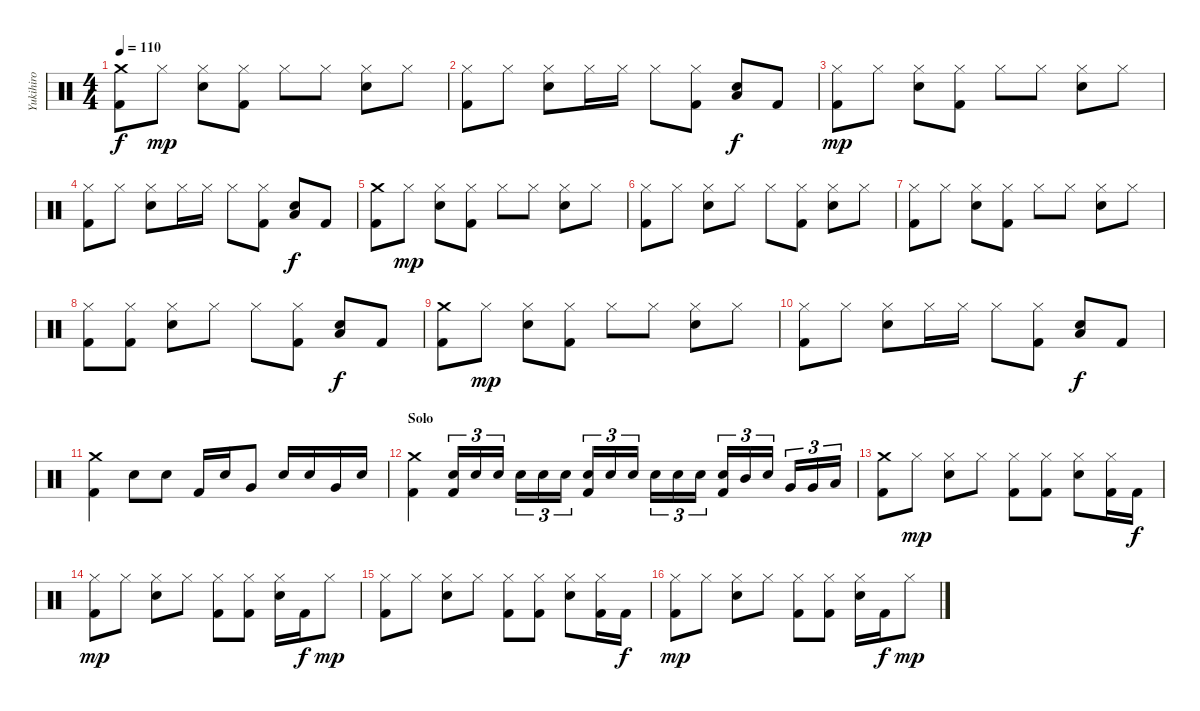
\track ("Yukihiro " "Yukihiro ") {instrument percussion}
\staff {score}
\articulation defaults
\ts (4 4)
\tempo 110
\clef neutral
\ks c
("Crash medium (hit)" "Kick (hit) 2").8{dy f} "Hi-Hat (closed)".8{dy mp} ("Hi-Hat (closed)" "Electric Snare (hit)").8 ("Hi-Hat (closed)" "Kick (hit) 2").8 "Hi-Hat (closed)".8 "Hi-Hat (closed)".8 ("Hi-Hat (closed)" "Electric Snare (hit)").8 "Hi-Hat (closed)".8 |
("Hi-Hat (closed)" "Kick (hit) 2").8 "Hi-Hat (closed)".8 ("Hi-Hat (closed)" "Electric Snare (hit)").8 "Hi-Hat (closed)".16 "Hi-Hat (closed)".16 "Hi-Hat (closed)".8 ("Hi-Hat (closed)" "Kick (hit) 2").8 ("Electric Snare (hit)" "Low Floor Tom (hit)").8{dy f} "Kick (hit) 2".8 |
("Hi-Hat (closed)" "Kick (hit) 2").8{dy mp} "Hi-Hat (closed)".8 ("Hi-Hat (closed)" "Electric Snare (hit)").8 ("Hi-Hat (closed)" "Kick (hit) 2").8 "Hi-Hat (closed)".8 "Hi-Hat (closed)".8 ("Hi-Hat (closed)" "Electric Snare (hit)").8 "Hi-Hat (closed)".8 |
("Hi-Hat (closed)" "Kick (hit) 2").8 "Hi-Hat (closed)".8 ("Hi-Hat (closed)" "Electric Snare (hit)").8 "Hi-Hat (closed)".16 "Hi-Hat (closed)".16 "Hi-Hat (closed)".8 ("Hi-Hat (closed)" "Kick (hit) 2").8 ("Electric Snare (hit)" "Low Floor Tom (hit)").8{dy f} "Kick (hit) 2".8 |
("Crash medium (hit)" "Kick (hit) 2").8 "Hi-Hat (closed)".8{dy mp} ("Hi-Hat (closed)" "Electric Snare (hit)").8 ("Hi-Hat (closed)" "Kick (hit) 2").8 "Hi-Hat (closed)".8 "Hi-Hat (closed)".8 ("Hi-Hat (closed)" "Electric Snare (hit)").8 "Hi-Hat (closed)".8 |
("Hi-Hat (closed)" "Kick (hit) 2").8 "Hi-Hat (closed)".8 ("Hi-Hat (closed)" "Electric Snare (hit)").8 "Hi-Hat (closed)".8 "Hi-Hat (closed)".8 ("Hi-Hat (closed)" "Kick (hit) 2").8 ("Hi-Hat (closed)" "Electric Snare (hit)").8 "Hi-Hat (closed)".8 |
("Hi-Hat (closed)" "Kick (hit) 2").8 "Hi-Hat (closed)".8 ("Hi-Hat (closed)" "Electric Snare (hit)").8 ("Hi-Hat (closed)" "Kick (hit) 2").8 "Hi-Hat (closed)".8 "Hi-Hat (closed)".8 ("Hi-Hat (closed)" "Electric Snare (hit)").8 "Hi-Hat (closed)".8 |
("Hi-Hat (closed)" "Kick (hit) 2").8 ("Hi-Hat (closed)" "Kick (hit) 2").8 ("Hi-Hat (closed)" "Electric Snare (hit)").8 "Hi-Hat (closed)".8 "Hi-Hat (closed)".8 ("Hi-Hat (closed)" "Kick (hit) 2").8 ("Electric Snare (hit)" "Low Floor Tom (hit)").8{dy f} "Kick (hit) 2".8 |
("Crash medium (hit)" "Kick (hit) 2").8 "Hi-Hat (closed)".8{dy mp} ("Hi-Hat (closed)" "Electric Snare (hit)").8 ("Hi-Hat (closed)" "Kick (hit) 2").8 "Hi-Hat (closed)".8 "Hi-Hat (closed)".8 ("Hi-Hat (closed)" "Electric Snare (hit)").8 "Hi-Hat (closed)".8 |
("Hi-Hat (closed)" "Kick (hit) 2").8 "Hi-Hat (closed)".8 ("Hi-Hat (closed)" "Electric Snare (hit)").8 "Hi-Hat (closed)".16 "Hi-Hat (closed)".16 "Hi-Hat (closed)".8 ("Hi-Hat (closed)" "Kick (hit) 2").8 ("Electric Snare (hit)" "Low Floor Tom (hit)").8{dy f} "Kick (hit) 2".8 |
("Crash medium (hit)" "Kick (hit) 2").4 "Electric Snare (hit)".8 "Electric Snare (hit)".8 "Kick (hit) 2".16 "Electric Snare (hit)".16 "Very Low Tom (hit)".8 "Electric Snare (hit)".16 "Electric Snare (hit)".16 "Very Low Tom (hit)".16 "Electric Snare (hit)".16 |
\section ("" "Solo")
("Crash medium (hit)" "Kick (hit) 2").4 ("Electric Snare (hit)" "Kick (hit) 2").16{tu (3 2)} "Electric Snare (hit)".16{tu (3 2)} "Electric Snare (hit)".16{tu (3 2)} "Electric Snare (hit)".16{tu (3 2)} "Electric Snare (hit)".16{tu (3 2)} "Electric Snare (hit)".16{tu (3 2)} ("Electric Snare (hit)" "Kick (hit) 2").16{tu (3 2)} "Electric Snare (hit)".16{tu (3 2)} "Electric Snare (hit)".16{tu (3 2)} "Electric Snare (hit)".16{tu (3 2)} "Electric Snare (hit)".16{tu (3 2)} "Electric Snare (hit)".16{tu (3 2)} ("Electric Snare (hit)" "Kick (hit) 2").16{tu (3 2)} "Mid Tom (hit)".16{tu (3 2)} "Electric Snare (hit)".16{tu (3 2)} "Very Low Tom (hit)".16{tu (3 2)} "Very Low Tom (hit)".16{tu (3 2)} "Low Floor Tom (hit)".16{tu (3 2)} |
("Crash medium (hit)" "Kick (hit) 2").8 "Hi-Hat (closed)".8{dy mp} ("Hi-Hat (closed)" "Electric Snare (hit)").8 "Hi-Hat (closed)".8 ("Hi-Hat (closed)" "Kick (hit) 2").8 ("Hi-Hat (closed)" "Kick (hit) 2").8 ("Hi-Hat (closed)" "Electric Snare (hit)").8 ("Hi-Hat (closed)" "Kick (hit) 2").16 "Kick (hit) 2".16{dy f} |
("Hi-Hat (closed)" "Kick (hit) 2").8{dy mp} "Hi-Hat (closed)".8 ("Hi-Hat (closed)" "Electric Snare (hit)").8 "Hi-Hat (closed)".8 ("Hi-Hat (closed)" "Kick (hit) 2").8 ("Hi-Hat (closed)" "Kick (hit) 2").8 ("Hi-Hat (closed)" "Electric Snare (hit)").16 "Kick (hit) 2".16{dy f} "Hi-Hat (closed)".8{dy mp} |
("Hi-Hat (closed)" "Kick (hit) 2").8 "Hi-Hat (closed)".8 ("Hi-Hat (closed)" "Electric Snare (hit)").8 "Hi-Hat (closed)".8 ("Hi-Hat (closed)" "Kick (hit) 2").8 ("Hi-Hat (closed)" "Kick (hit) 2").8 ("Hi-Hat (closed)" "Electric Snare (hit)").8 ("Hi-Hat (closed)" "Kick (hit) 2").16 "Kick (hit) 2".16{dy f} |
("Hi-Hat (closed)" "Kick (hit) 2").8{dy mp} "Hi-Hat (closed)".8 ("Hi-Hat (closed)" "Electric Snare (hit)").8 "Hi-Hat (closed)".8 ("Hi-Hat (closed)" "Kick (hit) 2").8 ("Hi-Hat (closed)" "Kick (hit) 2").8 ("Hi-Hat (closed)" "Electric Snare (hit)").16 "Kick (hit) 2".16{dy f} "Hi-Hat (closed)".8{dy mp}
